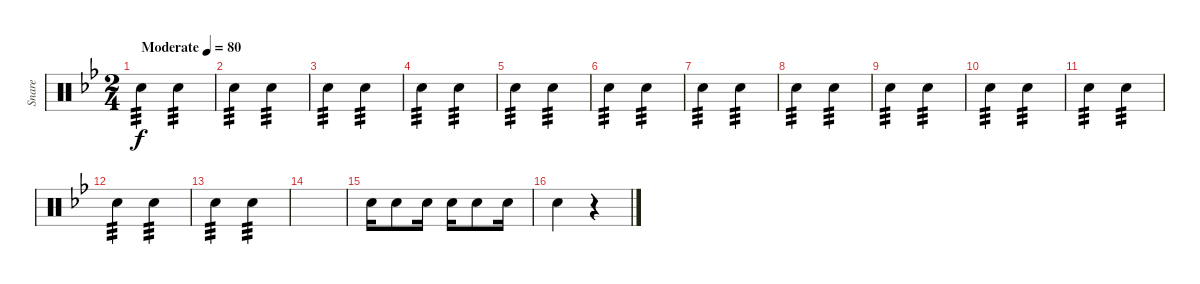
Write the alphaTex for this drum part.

\track ("Snare" "Snare") {instrument percussion}
\staff {score}
\articulation defaults
\ts (2 4)
\tempo (80 "Moderate")
\clef neutral
\ks bb "Electric Snare (hit)".4{tp 3 dy f} "Electric Snare (hit)".4{tp 3}
|
"Electric Snare (hit)".4{tp 3} "Electric Snare (hit)".4{tp 3} |
"Electric Snare (hit)".4{tp 3} "Electric Snare (hit)".4{tp 3} |
"Electric Snare (hit)".4{tp 3} "Electric Snare (hit)".4{tp 3} |
"Electric Snare (hit)".4{tp 3} "Electric Snare (hit)".4{tp 3} |
"Electric Snare (hit)".4{tp 3} "Electric Snare (hit)".4{tp 3} |
"Electric Snare (hit)".4{tp 3} "Electric Snare (hit)".4{tp 3} |
"Electric Snare (hit)".4{tp 3} "Electric Snare (hit)".4{tp 3} |
"Electric Snare (hit)".4{tp 3} "Electric Snare (hit)".4{tp 3} |
"Electric Snare (hit)".4{tp 3} "Electric Snare (hit)".4{tp 3} |
"Electric Snare (hit)".4{tp 3} "Electric Snare (hit)".4{tp 3} |
"Electric Snare (hit)".4{tp 3} "Electric Snare (hit)".4{tp 3} |
"Electric Snare (hit)".4{tp 3} "Electric Snare (hit)".4{tp 3} |
|
"Electric Snare (hit)".16 "Electric Snare (hit)".8 "Electric Snare (hit)".16 "Electric Snare (hit)".16 "Electric Snare (hit)".8 "Electric Snare (hit)".16 |
"Electric Snare (hit)".4 r.4
